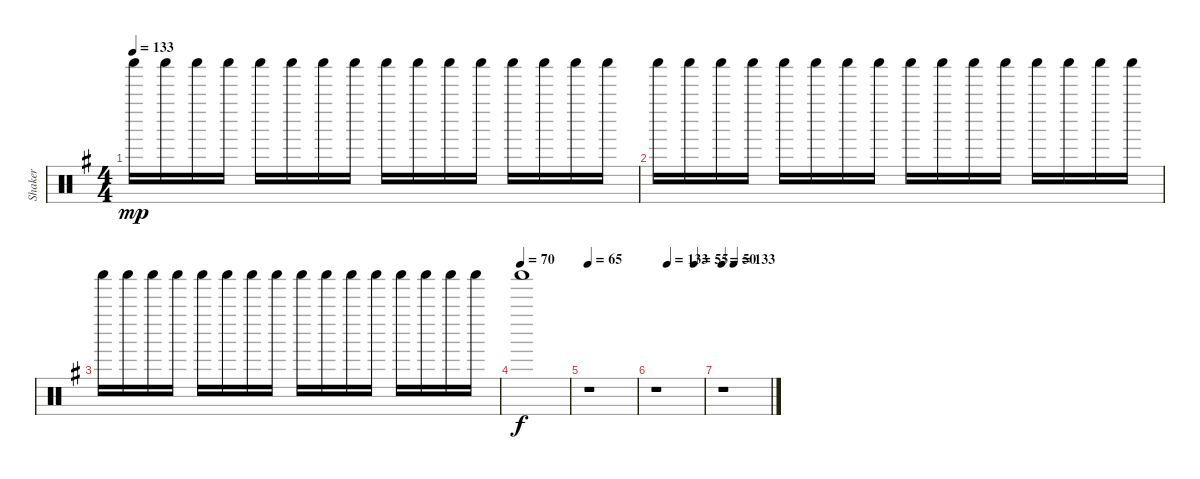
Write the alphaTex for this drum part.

\track ("Shaker" "Shaker") {instrument percussion}
\staff {score}
\articulation defaults
\ts (4 4)
\tempo 133
\clef neutral
\ks g "Shaker (hit)".16{dy mp} "Shaker (hit)".16 "Shaker (hit)".16 "Shaker (hit)".16 "Shaker (hit)".16 "Shaker (hit)".16 "Shaker (hit)".16 "Shaker (hit)".16 "Shaker (hit)".16 "Shaker (hit)".16 "Shaker (hit)".16 "Shaker (hit)".16 "Shaker (hit)".16 "Shaker (hit)".16 "Shaker (hit)".16 "Shaker (hit)".16
|
"Shaker (hit)".16 "Shaker (hit)".16 "Shaker (hit)".16 "Shaker (hit)".16 "Shaker (hit)".16 "Shaker (hit)".16 "Shaker (hit)".16 "Shaker (hit)".16 "Shaker (hit)".16 "Shaker (hit)".16 "Shaker (hit)".16 "Shaker (hit)".16 "Shaker (hit)".16 "Shaker (hit)".16 "Shaker (hit)".16 "Shaker (hit)".16 |
"Shaker (hit)".16 "Shaker (hit)".16 "Shaker (hit)".16 "Shaker (hit)".16 "Shaker (hit)".16 "Shaker (hit)".16 "Shaker (hit)".16 "Shaker (hit)".16 "Shaker (hit)".16 "Shaker (hit)".16 "Shaker (hit)".16 "Shaker (hit)".16 "Shaker (hit)".16 "Shaker (hit)".16 "Shaker (hit)".16 "Shaker (hit)".16 |
\tempo (70)
"Shaker (hit)".1{dy f} |
\tempo 65
r.1 |
\tempo (133 0.25)
\tempo (55 0.8125)
r.1 |
\tempo 50
\tempo (133 0.25)
r.1
